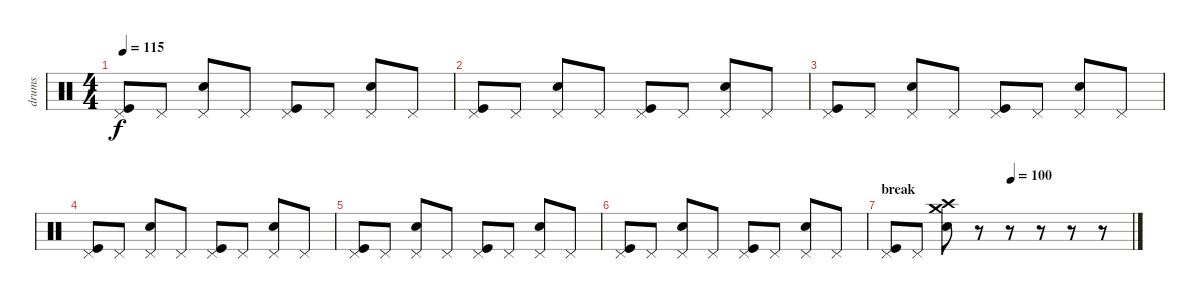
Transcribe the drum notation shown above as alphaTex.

\track ("drums" "drums") {instrument percussion}
\staff {score}
\articulation defaults
\ts (4 4)
\tempo 115
\clef neutral
\ks c
("Pedal Hi-Hat (hit)" "Kick (hit)").8{dy f} "Pedal Hi-Hat (hit)".8 ("Pedal Hi-Hat (hit)" "Electric Snare (hit)").8 "Pedal Hi-Hat (hit)".8 ("Pedal Hi-Hat (hit)" "Kick (hit)").8 "Pedal Hi-Hat (hit)".8 ("Pedal Hi-Hat (hit)" "Electric Snare (hit)").8 "Pedal Hi-Hat (hit)".8 |
("Pedal Hi-Hat (hit)" "Kick (hit)").8 "Pedal Hi-Hat (hit)".8 ("Pedal Hi-Hat (hit)" "Electric Snare (hit)").8 "Pedal Hi-Hat (hit)".8 ("Pedal Hi-Hat (hit)" "Kick (hit)").8 "Pedal Hi-Hat (hit)".8 ("Pedal Hi-Hat (hit)" "Electric Snare (hit)").8 "Pedal Hi-Hat (hit)".8 |
("Pedal Hi-Hat (hit)" "Kick (hit)").8 "Pedal Hi-Hat (hit)".8 ("Pedal Hi-Hat (hit)" "Electric Snare (hit)").8 "Pedal Hi-Hat (hit)".8 ("Pedal Hi-Hat (hit)" "Kick (hit)").8 "Pedal Hi-Hat (hit)".8 ("Pedal Hi-Hat (hit)" "Electric Snare (hit)").8 "Pedal Hi-Hat (hit)".8 |
("Pedal Hi-Hat (hit)" "Kick (hit)").8 "Pedal Hi-Hat (hit)".8 ("Pedal Hi-Hat (hit)" "Electric Snare (hit)").8 "Pedal Hi-Hat (hit)".8 ("Pedal Hi-Hat (hit)" "Kick (hit)").8 "Pedal Hi-Hat (hit)".8 ("Pedal Hi-Hat (hit)" "Electric Snare (hit)").8 "Pedal Hi-Hat (hit)".8 |
("Pedal Hi-Hat (hit)" "Kick (hit)").8 "Pedal Hi-Hat (hit)".8 ("Pedal Hi-Hat (hit)" "Electric Snare (hit)").8 "Pedal Hi-Hat (hit)".8 ("Pedal Hi-Hat (hit)" "Kick (hit)").8 "Pedal Hi-Hat (hit)".8 ("Pedal Hi-Hat (hit)" "Electric Snare (hit)").8 "Pedal Hi-Hat (hit)".8 |
("Pedal Hi-Hat (hit)" "Kick (hit)").8 "Pedal Hi-Hat (hit)".8 ("Pedal Hi-Hat (hit)" "Electric Snare (hit)").8 "Pedal Hi-Hat (hit)".8 ("Pedal Hi-Hat (hit)" "Kick (hit)").8 "Pedal Hi-Hat (hit)".8 ("Pedal Hi-Hat (hit)" "Electric Snare (hit)").8 "Pedal Hi-Hat (hit)".8 |
\section ("" "break")
\tempo (100 0.5)
("Pedal Hi-Hat (hit)" "Kick (hit)").8 "Pedal Hi-Hat (hit)".8 ("Crash medium (hit)" "Crash high (hit)" "Electric Snare (hit)").8 r.8 r.8 r.8 r.8 r.8
